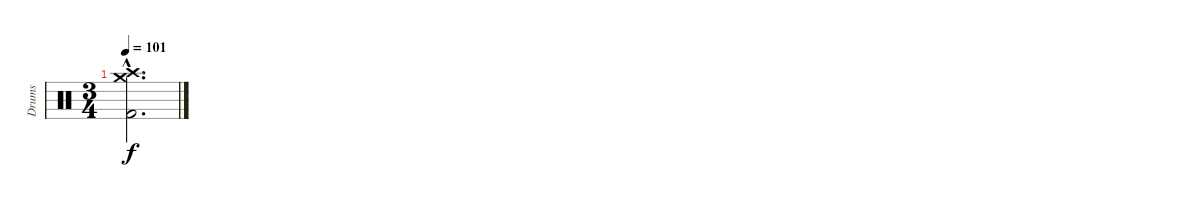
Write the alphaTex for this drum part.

\track ("Drums" "Drums") {instrument percussion}
\staff {score}
\articulation defaults
\ts (3 4)
\tempo 101
\clef neutral
\ks c
("Crash high (hit)"{hac} "Crash medium (hit)"{hac} "Kick (hit) 2"{hac}).2{d dy f}
